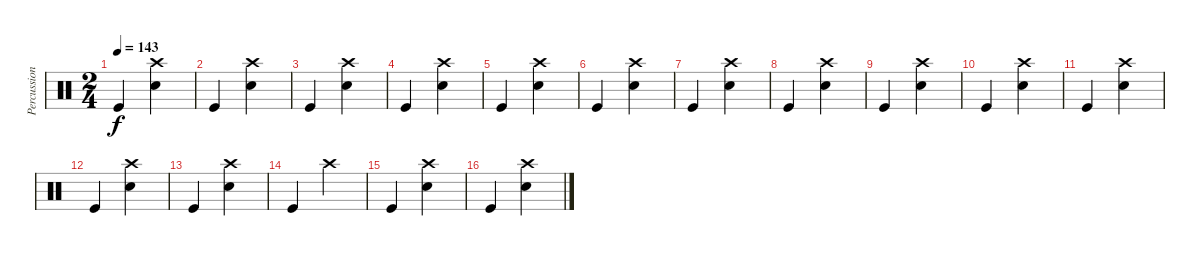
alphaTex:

\track ("Percussion" "Percussion") {instrument percussion}
\staff {score}
\articulation defaults
\ts (2 4)
\tempo 143
\clef neutral
\ks c "Kick (hit)".4{dy f}
("Snare (hit) 2" "Crash high (hit)").4 |
"Kick (hit)".4 ("Snare (hit) 2" "Crash high (hit)").4 |
"Kick (hit)".4 ("Snare (hit) 2" "Crash high (hit)").4 |
"Kick (hit)".4 ("Snare (hit) 2" "Crash high (hit)").4 |
"Kick (hit)".4 ("Snare (hit) 2" "Crash high (hit)").4 |
"Kick (hit)".4 ("Snare (hit) 2" "Crash high (hit)").4 |
"Kick (hit)".4 ("Snare (hit) 2" "Crash high (hit)").4 |
"Kick (hit)".4 ("Snare (hit) 2" "Crash high (hit)").4 |
"Kick (hit)".4 ("Snare (hit) 2" "Crash high (hit)").4 |
"Kick (hit)".4 ("Snare (hit) 2" "Crash high (hit)").4 |
"Kick (hit)".4 ("Snare (hit) 2" "Crash high (hit)").4 |
"Kick (hit)".4 ("Snare (hit) 2" "Crash high (hit)").4 |
"Kick (hit)".4 ("Snare (hit) 2" "Crash high (hit)").4 |
"Kick (hit)".4 "Crash high (hit)"{x}.4 |
"Kick (hit)".4 ("Snare (hit) 2"{x} "Crash high (hit)"{x}).4 |
"Kick (hit)".4 ("Snare (hit) 2"{x} "Crash high (hit)"{x}).4
